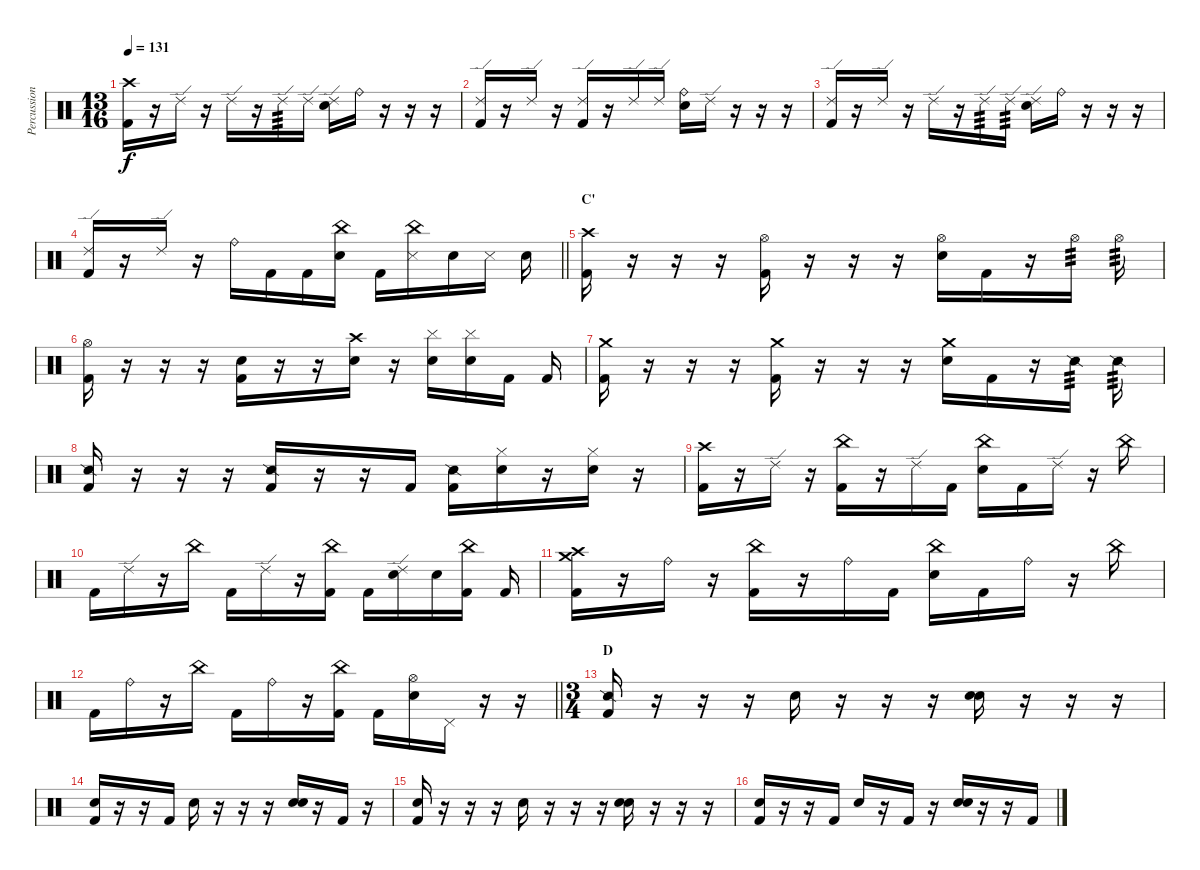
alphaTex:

\track ("Percussion" "Percussion") {instrument percussion}
\staff {score}
\articulation defaults
\ts (13 16)
\tempo 131
\clef neutral
\ks c
("Crash high (hit)" "Kick (hit) 2").16{dy f} r.16 "Ride (edge) 2".16 r.16 "Ride (edge) 2".16 r.16 "Ride (edge) 2".16{tp 3} "Ride (edge) 2".16 ("Ride (edge) 2" "Snare (hit) 2").16 "Ride (bell)".16 r.16 r.16 r.16 |
("Ride (edge) 2" "Kick (hit) 2").16 r.16 "Ride (edge) 2".16 r.16 ("Ride (edge) 2" "Kick (hit) 2").16 r.16 "Ride (edge) 2".16 "Ride (edge) 2".16 ("Ride (bell)" "Snare (hit) 2").16 "Ride (edge) 2".16 r.16 r.16 r.16 |
("Ride (edge) 2" "Kick (hit) 2").16 r.16 "Ride (edge) 2".16 r.16 "Ride (edge) 2".16 r.16 "Ride (edge) 2".16{tp 3} "Ride (edge) 2".16{tp 3} ("Ride (edge) 2" "Snare (hit) 2").16 "Ride (bell)".16 r.16 r.16 r.16 |
\barLineRight lightlight
("Ride (edge) 2" "Kick (hit) 2").16 r.16 "Ride (edge) 2".16 r.16 "Ride (bell)".16 "Kick (hit) 2".16 "Kick (hit) 2".16 ("China (hit)" "Snare (hit) 2").16 "Kick (hit) 2".16 ("China (hit)" "Metronome (hit)").16 "Snare (hit) 2".16 "Metronome (hit)".16 "Snare (hit) 2".16 |
\section ("" "C'")
("Crash high (hit)" "Kick (hit) 2").16 r.16 r.16 r.16 ("Hi-Hat (open)" "Kick (hit) 2").16 r.16 r.16 r.16 ("Hi-Hat (open)" "Snare (hit) 2").16 "Kick (hit) 2".16 r.16 "Hi-Hat (open)".16{tp 3} "Hi-Hat (open)".16{tp 3} |
("Hi-Hat (open)" "Kick (hit) 2").16 r.16 r.16 r.16 ("Snare (hit)" "Kick (hit) 2").16 r.16 r.16 ("Crash high (hit)" "Snare (hit) 2").16 r.16 ("Cymbal (hit)" "Snare (hit) 2").16 ("Cymbal (hit)" "Snare (hit) 2").16 "Kick (hit) 2".16 "Kick (hit) 2".16 |
("Crash medium (hit)" "Kick (hit) 2").16 r.16 r.16 r.16 ("Crash medium (hit)" "Kick (hit) 2").16 r.16 r.16 r.16 ("Crash medium (hit)" "Snare (hit) 2").16 "Kick (hit) 2".16 r.16 "Snare (side stick) 2".16{tp 3} "Snare (side stick) 2".16{tp 3} |
("Snare (side stick) 2" "Kick (hit) 2").16 r.16 r.16 r.16 ("Snare (side stick) 2" "Kick (hit) 2").16 r.16 r.16 "Kick (hit) 2".16 ("Snare (side stick) 2" "Kick (hit) 2").16 ("Hi-Hat (closed)" "Snare (hit) 2").16 r.16 ("Hi-Hat (closed)" "Snare (hit) 2").16 r.16 |
("Crash high (hit)" "Kick (hit) 2").16 r.16 "Ride (edge) 2".16 r.16 ("China (hit)" "Kick (hit) 2").16 r.16 "Ride (edge) 2".16 "Kick (hit) 2".16 ("China (hit)" "Snare (hit) 2").16 "Kick (hit) 2".16 "Ride (edge) 2".16 r.16 "China (hit)".16 |
"Kick (hit) 2".16 "Ride (edge) 2".16 r.16 "China (hit)".16 "Kick (hit) 2".16 "Ride (edge) 2".16 r.16 ("China (hit)" "Kick (hit) 2").16 "Kick (hit) 2".16 ("Ride (edge) 2" "Snare (hit) 2").16 "Snare (hit) 2".16 ("China (hit)" "Kick (hit) 2").16 "Kick (hit) 2".16 |
("Crash high (hit)" "Crash medium (hit)" "Kick (hit) 2").16 r.16 "Ride (bell)".16 r.16 ("China (hit)" "Kick (hit) 2").16 r.16 "Ride (bell)".16 "Kick (hit) 2".16 ("China (hit)" "Snare (hit) 2").16 "Kick (hit) 2".16 "Ride (bell)".16 r.16 "China (hit)".16 |
\barLineRight lightlight "Kick (hit) 2".16 "Ride (bell)".16
r.16 "China (hit)".16 "Kick (hit) 2".16 "Ride (bell)".16 r.16 ("China (hit)" "Kick (hit) 2").16 "Kick (hit) 2".16 ("Hi-Hat (open)" "Snare (hit) 2").16 "Pedal Hi-Hat (hit)".16 r.16 r.16 |
\ts (3 4)
\section ("" "D")
("Snare (side stick) 2" "Kick (hit) 2").16 r.16 r.16 r.16 "Snare (hit)".16 r.16 r.16 r.16 ("Snare (hit)" "Snare (hit) 2").16 r.16 r.16 r.16 |
("Snare (hit)" "Kick (hit) 2").16 r.16 r.16 "Kick (hit) 2".16 "Snare (hit)".16 r.16 r.16 r.16 ("Snare (hit)" "Snare (hit) 2").16 r.16 "Kick (hit) 2".16 r.16 |
("Snare (hit)" "Kick (hit) 2").16 r.16 r.16 r.16 "Snare (hit)".16 r.16 r.16 r.16 ("Snare (hit)" "Snare (hit) 2").16 r.16 r.16 r.16 |
("Snare (hit)" "Kick (hit) 2").16 r.16 r.16 "Kick (hit) 2".16 "Snare (hit)".16 r.16 "Kick (hit) 2".16 r.16 ("Snare (hit)" "Snare (hit) 2").16 r.16 r.16 "Kick (hit) 2".16
